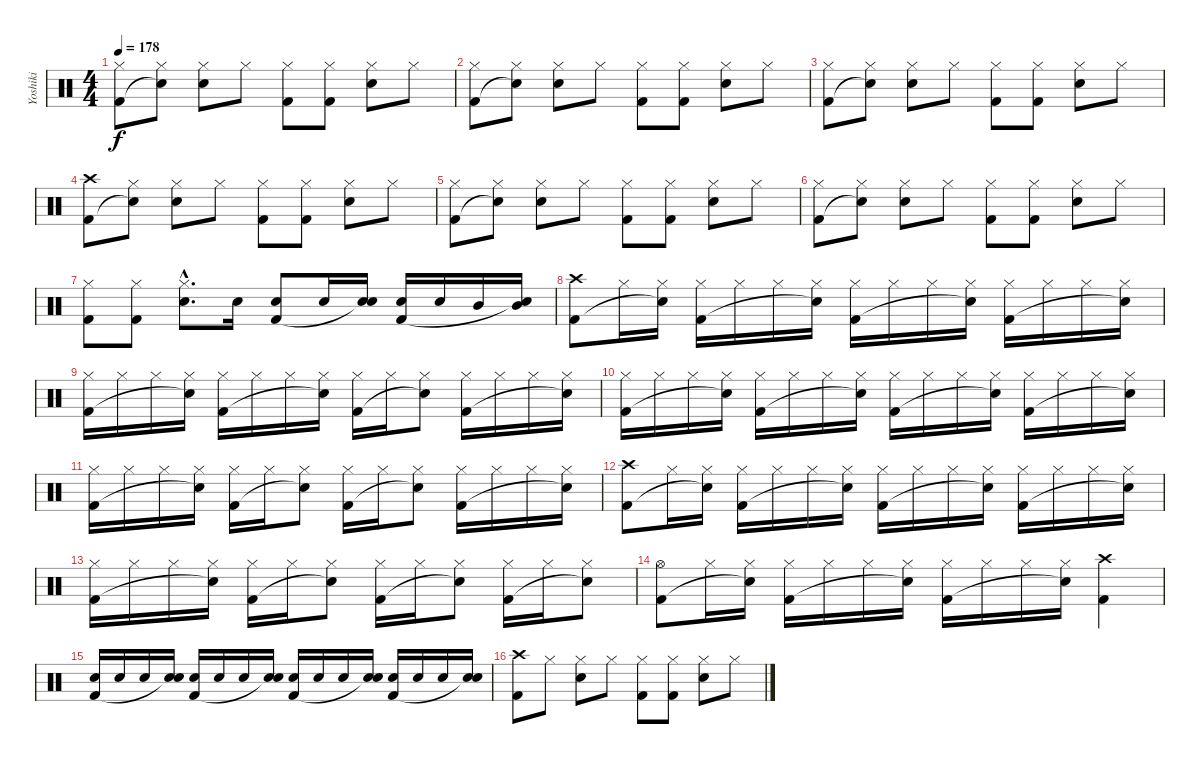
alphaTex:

\track ("Yoshiki" "Yoshiki") {instrument percussion}
\staff {score}
\articulation defaults
\ts (4 4)
\tempo 178
\clef neutral
\ks c
("Hi-Hat (closed)" "Kick (hit) 2").8{dy f} ("Hi-Hat (closed)" "Snare (hit)"{t}).8 ("Hi-Hat (closed)" "Snare (hit) 2").8 "Hi-Hat (closed)".8 ("Hi-Hat (closed)" "Kick (hit) 2").8 ("Hi-Hat (closed)" "Kick (hit) 2").8 ("Hi-Hat (closed)" "Snare (hit) 2").8 "Hi-Hat (closed)".8 |
("Hi-Hat (closed)" "Kick (hit) 2").8 ("Hi-Hat (closed)" "Snare (hit)"{t}).8 ("Hi-Hat (closed)" "Snare (hit) 2").8 "Hi-Hat (closed)".8 ("Hi-Hat (closed)" "Kick (hit) 2").8 ("Hi-Hat (closed)" "Kick (hit) 2").8 ("Hi-Hat (closed)" "Snare (hit) 2").8 "Hi-Hat (closed)".8 |
("Hi-Hat (closed)" "Kick (hit) 2").8 ("Hi-Hat (closed)" "Snare (hit)"{t}).8 ("Hi-Hat (closed)" "Snare (hit) 2").8 "Hi-Hat (closed)".8 ("Hi-Hat (closed)" "Kick (hit) 2").8 ("Hi-Hat (closed)" "Kick (hit) 2").8 ("Hi-Hat (closed)" "Snare (hit) 2").8 "Hi-Hat (closed)".8 |
("Crash high (hit)" "Kick (hit) 2").8 ("Hi-Hat (closed)" "Snare (hit)"{t}).8 ("Hi-Hat (closed)" "Snare (hit) 2").8 "Hi-Hat (closed)".8 ("Hi-Hat (closed)" "Kick (hit) 2").8 ("Hi-Hat (closed)" "Kick (hit) 2").8 ("Hi-Hat (closed)" "Snare (hit) 2").8 "Hi-Hat (closed)".8 |
("Hi-Hat (closed)" "Kick (hit) 2").8 ("Hi-Hat (closed)" "Snare (hit)"{t}).8 ("Hi-Hat (closed)" "Snare (hit) 2").8 "Hi-Hat (closed)".8 ("Hi-Hat (closed)" "Kick (hit) 2").8 ("Hi-Hat (closed)" "Kick (hit) 2").8 ("Hi-Hat (closed)" "Snare (hit) 2").8 "Hi-Hat (closed)".8 |
("Hi-Hat (closed)" "Kick (hit) 2").8 ("Hi-Hat (closed)" "Snare (hit)"{t}).8 ("Hi-Hat (closed)" "Snare (hit) 2").8 "Hi-Hat (closed)".8 ("Hi-Hat (closed)" "Kick (hit) 2").8 ("Hi-Hat (closed)" "Kick (hit) 2").8 ("Hi-Hat (closed)" "Snare (hit) 2").8 "Hi-Hat (closed)".8 |
("Hi-Hat (closed)" "Kick (hit) 2").8 ("Hi-Hat (closed)" "Kick (hit) 2").8 ("Hi-Hat (closed)"{hac} "Snare (hit) 2"{hac}).8{d} "Snare (hit) 2".16 ("Snare (hit) 2" "Kick (hit) 2").8 "Snare (hit) 2".16 ("Snare (hit) 2" "Snare (hit)"{t}).16 ("Snare (hit) 2" "Kick (hit) 2").16 "Snare (hit) 2".16 "Mid Tom (hit)".16 ("Mid Tom (hit)" "Snare (hit)"{t}).16 |
("Crash high (hit)" "Kick (hit) 2").8 "Hi-Hat (closed)".16 ("Hi-Hat (closed)" "Snare (hit)"{t}).16 ("Hi-Hat (closed)" "Kick (hit) 2").16 "Hi-Hat (closed)".16 "Hi-Hat (closed)".16 ("Hi-Hat (closed)" "Snare (hit)"{t}).16 ("Hi-Hat (closed)" "Kick (hit) 2").16 "Hi-Hat (closed)".16 "Hi-Hat (closed)".16 ("Hi-Hat (closed)" "Snare (hit)"{t}).16 ("Hi-Hat (closed)" "Kick (hit) 2").16 "Hi-Hat (closed)".16 "Hi-Hat (closed)".16 ("Hi-Hat (closed)" "Snare (hit)"{t}).16 |
("Hi-Hat (closed)" "Kick (hit) 2").16 "Hi-Hat (closed)".16 "Hi-Hat (closed)".16 ("Hi-Hat (closed)" "Snare (hit)"{t}).16 ("Hi-Hat (closed)" "Kick (hit) 2").16 "Hi-Hat (closed)".16 "Hi-Hat (closed)".16 ("Hi-Hat (closed)" "Snare (hit)"{t}).16 ("Hi-Hat (closed)" "Kick (hit) 2").16 "Hi-Hat (closed)".16 ("Hi-Hat (closed)" "Snare (hit)"{t}).8 ("Hi-Hat (closed)" "Kick (hit) 2").16 "Hi-Hat (closed)".16 "Hi-Hat (closed)".16 ("Hi-Hat (closed)" "Snare (hit)"{t}).16 |
("Hi-Hat (closed)" "Kick (hit) 2").16 "Hi-Hat (closed)".16 "Hi-Hat (closed)".16 ("Hi-Hat (closed)" "Snare (hit)"{t}).16 ("Hi-Hat (closed)" "Kick (hit) 2").16 "Hi-Hat (closed)".16 "Hi-Hat (closed)".16 ("Hi-Hat (closed)" "Snare (hit)"{t}).16 ("Hi-Hat (closed)" "Kick (hit) 2").16 "Hi-Hat (closed)".16 "Hi-Hat (closed)".16 ("Hi-Hat (closed)" "Snare (hit)"{t}).16 ("Hi-Hat (closed)" "Kick (hit) 2").16 "Hi-Hat (closed)".16 "Hi-Hat (closed)".16 ("Hi-Hat (closed)" "Snare (hit)"{t}).16 |
("Hi-Hat (closed)" "Kick (hit) 2").16 "Hi-Hat (closed)".16 "Hi-Hat (closed)".16 ("Hi-Hat (closed)" "Snare (hit)"{t}).16 ("Hi-Hat (closed)" "Kick (hit) 2").16 "Hi-Hat (closed)".16 ("Hi-Hat (closed)" "Snare (hit)"{t}).8 ("Hi-Hat (closed)" "Kick (hit) 2").16 "Hi-Hat (closed)".16 ("Hi-Hat (closed)" "Snare (hit)"{t}).8 ("Hi-Hat (closed)" "Kick (hit) 2").16 "Hi-Hat (closed)".16 "Hi-Hat (closed)".16 ("Hi-Hat (closed)" "Snare (hit)"{t}).16 |
("Crash high (hit)" "Kick (hit) 2").8 "Hi-Hat (closed)".16 ("Hi-Hat (closed)" "Snare (hit)"{t}).16 ("Hi-Hat (closed)" "Kick (hit) 2").16 "Hi-Hat (closed)".16 "Hi-Hat (closed)".16 ("Hi-Hat (closed)" "Snare (hit)"{t}).16 ("Hi-Hat (closed)" "Kick (hit) 2").16 "Hi-Hat (closed)".16 "Hi-Hat (closed)".16 ("Hi-Hat (closed)" "Snare (hit)"{t}).16 ("Hi-Hat (closed)" "Kick (hit) 2").16 "Hi-Hat (closed)".16 "Hi-Hat (closed)".16 ("Hi-Hat (closed)" "Snare (hit)"{t}).16 |
("Hi-Hat (closed)" "Kick (hit) 2").16 "Hi-Hat (closed)".16 "Hi-Hat (closed)".16 ("Hi-Hat (closed)" "Snare (hit)"{t}).16 ("Hi-Hat (closed)" "Kick (hit) 2").16 "Hi-Hat (closed)".16 ("Hi-Hat (closed)" "Snare (hit)"{t}).8 ("Hi-Hat (closed)" "Kick (hit) 2").16 "Hi-Hat (closed)".16 ("Hi-Hat (closed)" "Snare (hit)"{t}).8 ("Hi-Hat (closed)" "Kick (hit) 2").16 "Hi-Hat (closed)".16 ("Hi-Hat (closed)" "Snare (hit)"{t}).8 |
("Hi-Hat (open)" "Kick (hit) 2").8 "Hi-Hat (closed)".16 ("Hi-Hat (closed)" "Snare (hit)"{t}).16 ("Hi-Hat (closed)" "Kick (hit) 2").16 "Hi-Hat (closed)".16 "Hi-Hat (closed)".16 ("Hi-Hat (closed)" "Snare (hit)"{t}).16 ("Hi-Hat (closed)" "Kick (hit) 2").16 "Hi-Hat (closed)".16 "Hi-Hat (closed)".16 ("Hi-Hat (closed)" "Snare (hit)"{t}).16 ("Crash high (hit)" "Kick (hit) 2").4 |
("Snare (hit) 2" "Kick (hit) 2").16 "Snare (hit) 2".16 "Snare (hit) 2".16 ("Snare (hit) 2" "Snare (hit)"{t}).16 ("Snare (hit) 2" "Kick (hit) 2").16 "Snare (hit) 2".16 "Snare (hit) 2".16 ("Snare (hit) 2" "Snare (hit)"{t}).16 ("Snare (hit) 2" "Kick (hit) 2").16 "Snare (hit) 2".16 "Snare (hit) 2".16 ("Snare (hit) 2" "Snare (hit)"{t}).16 ("Snare (hit) 2" "Kick (hit) 2").16 "Snare (hit) 2".16 "Snare (hit) 2".16 ("Snare (hit) 2" "Snare (hit)"{t}).16 |
("Crash high (hit)" "Kick (hit) 2").8 "Hi-Hat (closed)".8 ("Hi-Hat (closed)" "Snare (hit) 2").8 "Hi-Hat (closed)".8 ("Hi-Hat (closed)" "Kick (hit) 2").8 ("Hi-Hat (closed)" "Kick (hit) 2").8 ("Hi-Hat (closed)" "Snare (hit) 2").8 "Hi-Hat (closed)".8
